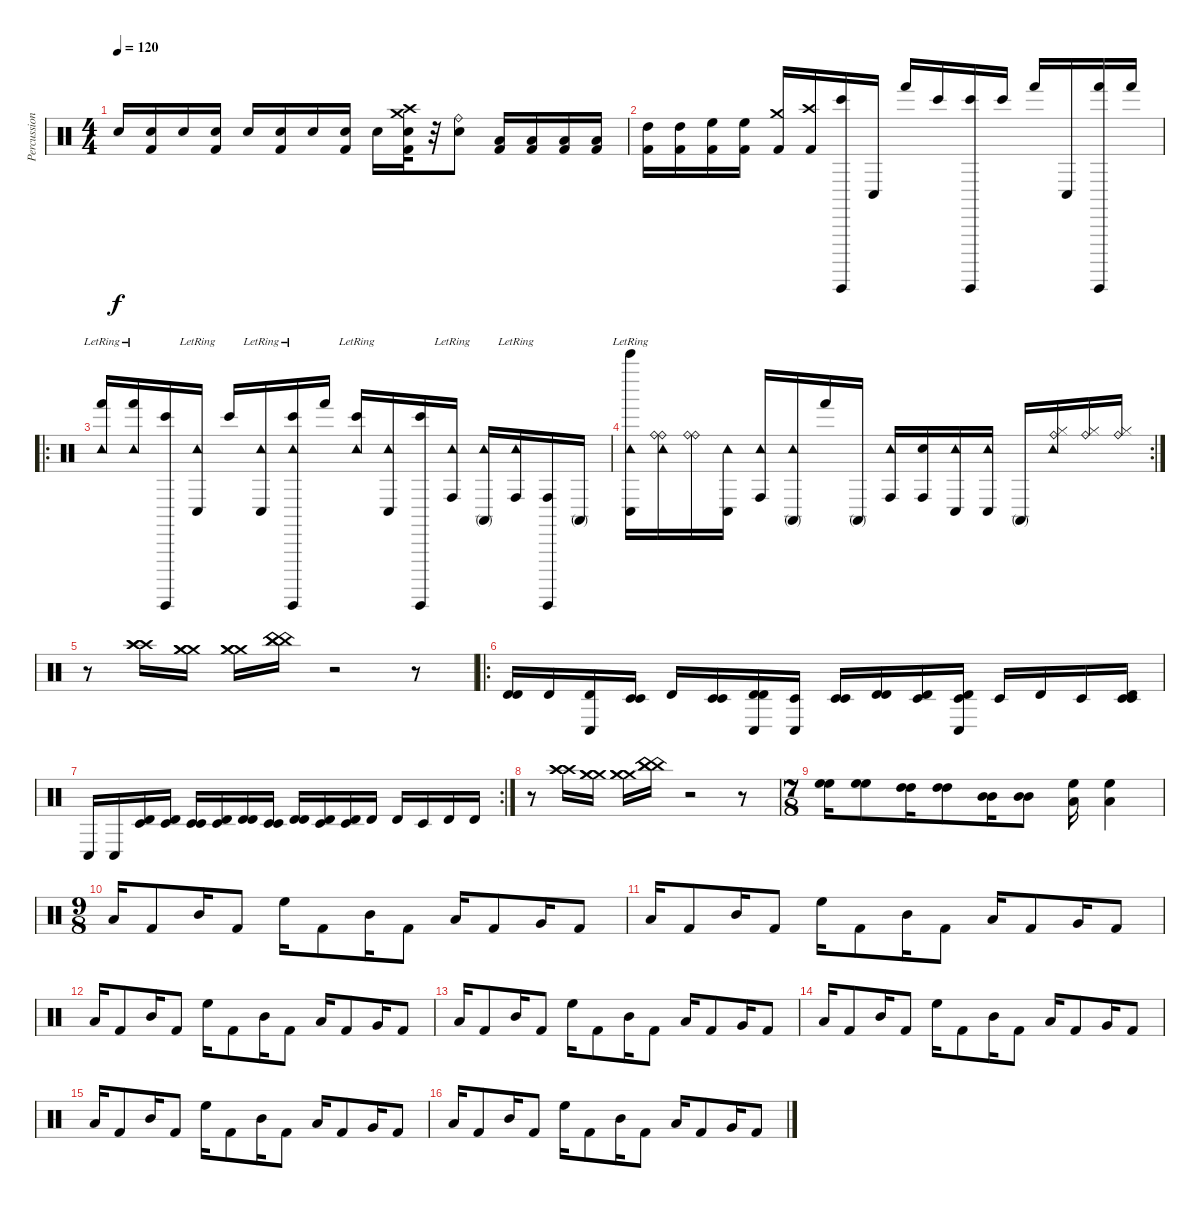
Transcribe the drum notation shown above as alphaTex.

\track ("Percussion" "Percussion") {instrument percussion}
\staff {score}
\articulation defaults
\ts (4 4)
\tempo 120
\clef neutral
\ks c "Electric Snare (hit)".16{dy f}
("Electric Snare (hit)" "Kick (hit) 2").16 "Electric Snare (hit)".16 ("Electric Snare (hit)" "Kick (hit) 2").16 "Electric Snare (hit)".16 ("Electric Snare (hit)" "Kick (hit) 2").16 "Electric Snare (hit)".16 ("Electric Snare (hit)" "Kick (hit) 2").16 "Electric Snare (hit)".16 ("Crash medium (hit)" "Electric Snare (hit)" "Kick (hit) 2" "Crash high (hit)").32 r.32 ("Electric Snare (hit)"{x} "Ride (bell)"{x}).8 ("Kick (hit) 2" "Low Floor Tom (hit)").16 ("Kick (hit) 2" "Low Floor Tom (hit)").16 ("Kick (hit) 2" "Low Tom (hit)").16 ("Kick (hit) 2" "Low Tom (hit)").16 |
("Kick (hit) 2" "High Tom (hit)").16 ("Kick (hit) 2" "High Tom (hit)").16 ("Kick (hit) 2" "High Floor Tom (hit)").16 ("Kick (hit) 2" "High Floor Tom (hit)").16 ("Crash medium (hit)" "Kick (hit) 2").16 ("Crash high (hit)" "Kick (hit) 2").16 ("Bongo High (hit)" "Guiro (hit)").16 "Conga low (hit)".16 "Hand (hit)".16 "Bongo High (hit)".16 ("Bongo High (hit)" "Guiro (hit)").16 "Bongo High (hit)".16 "Hand (hit)".16 "Conga low (hit)".16 ("Hand (hit)" "Guiro (hit)").16 "Hand (hit)".16 |
\ro
("Hand (hit)" "Tambourine (hit)"{lr}).16 ("Hand (hit)" "Tambourine (hit)"{lr}).16 ("Bongo High (hit)" "Guiro (hit)").16 ("Conga low (hit)" "Tambourine (hit)"{lr}).16 "Bongo High (hit)".16 ("Conga low (hit)" "Tambourine (hit)"{lr}).16 ("Bongo High (hit)" "Guiro (hit)" "Tambourine (hit)"{lr}).16 "Hand (hit)".16 ("Bongo High (hit)" "Tambourine (hit)"{lr}).16 ("Conga low (hit)" "Tambourine (hit)").16 ("Bongo High (hit)" "Guiro (hit)").16 ("Conga high (hit)" "Tambourine (hit)"{lr}).16 ("Conga high (mute)" "Tambourine (hit)").16 ("Conga high (hit)" "Tambourine (hit)"{lr}).16 ("Conga high (hit)" "Guiro (hit)").16 "Conga high (mute)".16 |
\rc 2
("Conga low (hit)"{lr} "Bell Tree (hit)"{lr} "Tambourine (hit)").16 ("Ride (bell)" "Ride (bell)" "Tambourine (hit)").16 ("Ride (bell)" "Ride (bell)").16 ("Conga low (hit)" "Tambourine (hit)").16 ("Conga high (hit)" "Tambourine (hit)").16 ("Conga high (mute)" "Tambourine (hit)").16 "Hand (hit)".16 "Conga high (mute)".16 ("Conga high (hit)" "Tambourine (hit)").16 ("Conga high (hit)" "Snare (hit)"{x}).16 ("Conga low (hit)" "Tambourine (hit)").16 ("Conga low (hit)" "Tambourine (hit)").16 "Conga high (mute)".16 ("Hi-Hat (closed)" "Ride (bell)" "Tambourine (hit)").16 ("Hi-Hat (closed)" "Ride (bell)").16 ("Hi-Hat (closed)" "Ride (bell)").16 |
r.8 ("Crash high (hit)" "Crash high (hit)" "Crash high (hit)").16 ("Crash medium (hit)" "Crash medium (hit)" "Crash medium (hit)").16 ("Crash medium (hit)" "Crash medium (hit)" "Crash medium (hit)").16 ("China (hit)" "China (hit)" "China (hit)").16 r.2 r.8 |
\ro
("Timbale high (hit)" "Timbale high (hit)").16{volume 13} "Timbale high (hit)".16 ("Timbale high (hit)" "Conga low (hit)").16 ("Timbale low (hit)" "Timbale low (hit)").16 "Timbale high (hit)".16 ("Timbale low (hit)" "Timbale low (hit)").16 ("Timbale high (hit)" "Timbale high (hit)" "Conga low (hit)").16 ("Timbale low (hit)" "Conga low (hit)").16 ("Timbale low (hit)" "Timbale low (hit)").16 ("Timbale high (hit)" "Timbale high (hit)").16 ("Timbale high (hit)" "Timbale low (hit)").16 ("Timbale low (hit)" "Timbale high (hit)" "Conga low (hit)").16 "Timbale low (hit)".16 "Timbale high (hit)".16 "Timbale low (hit)".16 ("Timbale high (hit)" "Timbale low (hit)" "Timbale low (hit)").16 |
\rc 2 "Conga low (hit)".16 "Conga low (hit)".16
("Timbale high (hit)" "Timbale low (hit)").16 ("Timbale high (hit)" "Timbale low (hit)").16 ("Timbale low (hit)" "Timbale low (hit)").16 ("Timbale low (hit)" "Timbale high (hit)").16 ("Timbale high (hit)" "Timbale high (hit)").16 ("Timbale low (hit)" "Timbale low (hit)").16 ("Timbale high (hit)" "Timbale high (hit)").16 ("Timbale high (hit)" "Timbale low (hit)").16 ("Timbale low (hit)" "Timbale high (hit)").16 "Timbale high (hit)".16 "Timbale high (hit)".16 "Timbale low (hit)".16 "Timbale high (hit)".16 "Timbale high (hit)".16 |
r.8 ("Crash high (hit)" "Crash high (hit)" "Crash high (hit)").16 ("Crash medium (hit)" "Crash medium (hit)" "Crash medium (hit)").16 ("Crash medium (hit)" "Crash medium (hit)" "Crash medium (hit)").16 ("China (hit)" "China (hit)" "China (hit)").16 r.2 r.8 |
\ts (7 8)
("High Floor Tom (hit)" "High Floor Tom (hit)").16 ("High Floor Tom (hit)" "High Floor Tom (hit)").8 ("High Tom (hit)" "High Tom (hit)").16 ("High Tom (hit)" "High Tom (hit)").8 ("Mid Tom (hit)" "Mid Tom (hit)").16 ("Mid Tom (hit)" "Mid Tom (hit)").8 ("Low Tom (hit)" "High Floor Tom (hit)").16 ("Low Tom (hit)" "High Floor Tom (hit)").4 |
\ts (9 8)
"Low Tom (hit)".16 "Kick (hit) 2".8 "Mid Tom (hit)".16 "Kick (hit) 2".8 "High Floor Tom (hit)".16 "Kick (hit) 2".8 "Mid Tom (hit)".16 "Kick (hit) 2".8 "Low Tom (hit)".16 "Kick (hit) 2".8 "Very Low Tom (hit)".16 "Kick (hit) 2".8 |
"Low Tom (hit)".16 "Kick (hit) 2".8 "Mid Tom (hit)".16 "Kick (hit) 2".8 "High Floor Tom (hit)".16 "Kick (hit) 2".8 "Mid Tom (hit)".16 "Kick (hit) 2".8 "Low Tom (hit)".16 "Kick (hit) 2".8 "Very Low Tom (hit)".16 "Kick (hit) 2".8 |
"Low Tom (hit)".16 "Kick (hit) 2".8 "Mid Tom (hit)".16 "Kick (hit) 2".8 "High Floor Tom (hit)".16 "Kick (hit) 2".8 "Mid Tom (hit)".16 "Kick (hit) 2".8 "Low Tom (hit)".16 "Kick (hit) 2".8 "Very Low Tom (hit)".16 "Kick (hit) 2".8 |
"Low Tom (hit)".16 "Kick (hit) 2".8 "Mid Tom (hit)".16 "Kick (hit) 2".8 "High Floor Tom (hit)".16 "Kick (hit) 2".8 "Mid Tom (hit)".16 "Kick (hit) 2".8 "Low Tom (hit)".16 "Kick (hit) 2".8 "Very Low Tom (hit)".16 "Kick (hit) 2".8 |
"Low Tom (hit)".16 "Kick (hit) 2".8 "Mid Tom (hit)".16 "Kick (hit) 2".8 "High Floor Tom (hit)".16 "Kick (hit) 2".8 "Mid Tom (hit)".16 "Kick (hit) 2".8 "Low Tom (hit)".16 "Kick (hit) 2".8 "Very Low Tom (hit)".16 "Kick (hit) 2".8 |
"Low Tom (hit)".16 "Kick (hit) 2".8 "Mid Tom (hit)".16 "Kick (hit) 2".8 "High Floor Tom (hit)".16 "Kick (hit) 2".8 "Mid Tom (hit)".16 "Kick (hit) 2".8 "Low Tom (hit)".16 "Kick (hit) 2".8 "Very Low Tom (hit)".16 "Kick (hit) 2".8 |
"Low Tom (hit)".16 "Kick (hit) 2".8 "Mid Tom (hit)".16 "Kick (hit) 2".8 "High Floor Tom (hit)".16 "Kick (hit) 2".8 "Mid Tom (hit)".16 "Kick (hit) 2".8 "Low Tom (hit)".16 "Kick (hit) 2".8 "Very Low Tom (hit)".16 "Kick (hit) 2".8
